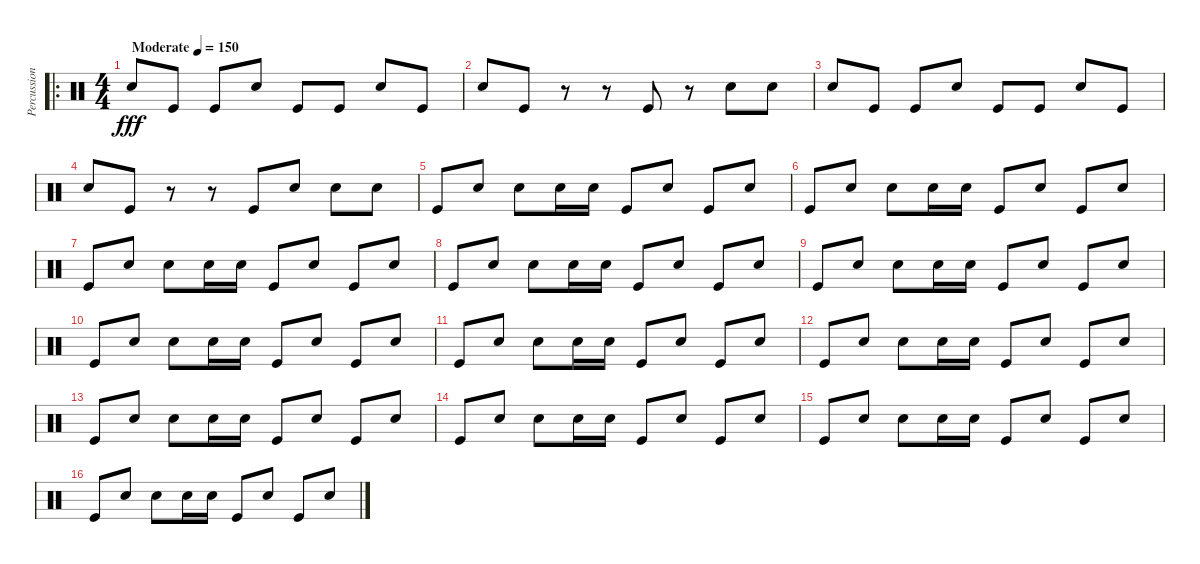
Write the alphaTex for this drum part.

\track ("Percussions" "Percussion") {instrument percussion}
\staff {score}
\articulation defaults
\ro
\ts (4 4)
\tempo (150 "Moderate")
\clef neutral
\ks c "Snare (hit) 2".8{dy fff} "Kick (hit)".8 "Kick (hit)".8 "Snare (hit) 2".8 "Kick (hit)".8 "Kick (hit)".8 "Snare (hit) 2".8 "Kick (hit)".8
|
"Snare (hit) 2".8 "Kick (hit)".8 r.8 r.8 "Kick (hit)".8 r.8 "Snare (hit) 2".8 "Snare (hit) 2".8 |
"Snare (hit) 2".8 "Kick (hit)".8 "Kick (hit)".8 "Snare (hit) 2".8 "Kick (hit)".8 "Kick (hit)".8 "Snare (hit) 2".8 "Kick (hit)".8 |
"Snare (hit) 2".8 "Kick (hit)".8 r.8 r.8 "Kick (hit)".8 "Snare (hit) 2".8 "Snare (hit) 2".8 "Snare (hit) 2".8 |
"Kick (hit)".8 "Snare (hit) 2".8 "Snare (hit) 2".8 "Snare (hit) 2".16 "Snare (hit) 2".16 "Kick (hit)".8 "Snare (hit) 2".8 "Kick (hit)".8 "Snare (hit) 2".8 |
"Kick (hit)".8 "Snare (hit) 2".8 "Snare (hit) 2".8 "Snare (hit) 2".16 "Snare (hit) 2".16 "Kick (hit)".8 "Snare (hit) 2".8 "Kick (hit)".8 "Snare (hit) 2".8 |
"Kick (hit)".8 "Snare (hit) 2".8 "Snare (hit) 2".8 "Snare (hit) 2".16 "Snare (hit) 2".16 "Kick (hit)".8 "Snare (hit) 2".8 "Kick (hit)".8 "Snare (hit) 2".8 |
"Kick (hit)".8 "Snare (hit) 2".8 "Snare (hit) 2".8 "Snare (hit) 2".16 "Snare (hit) 2".16 "Kick (hit)".8 "Snare (hit) 2".8 "Kick (hit)".8 "Snare (hit) 2".8 |
"Kick (hit)".8 "Snare (hit) 2".8 "Snare (hit) 2".8 "Snare (hit) 2".16 "Snare (hit) 2".16 "Kick (hit)".8 "Snare (hit) 2".8 "Kick (hit)".8 "Snare (hit) 2".8 |
"Kick (hit)".8 "Snare (hit) 2".8 "Snare (hit) 2".8 "Snare (hit) 2".16 "Snare (hit) 2".16 "Kick (hit)".8 "Snare (hit) 2".8 "Kick (hit)".8 "Snare (hit) 2".8 |
"Kick (hit)".8 "Snare (hit) 2".8 "Snare (hit) 2".8 "Snare (hit) 2".16 "Snare (hit) 2".16 "Kick (hit)".8 "Snare (hit) 2".8 "Kick (hit)".8 "Snare (hit) 2".8 |
"Kick (hit)".8 "Snare (hit) 2".8 "Snare (hit) 2".8 "Snare (hit) 2".16 "Snare (hit) 2".16 "Kick (hit)".8 "Snare (hit) 2".8 "Kick (hit)".8 "Snare (hit) 2".8 |
"Kick (hit)".8 "Snare (hit) 2".8 "Snare (hit) 2".8 "Snare (hit) 2".16 "Snare (hit) 2".16 "Kick (hit)".8 "Snare (hit) 2".8 "Kick (hit)".8 "Snare (hit) 2".8 |
"Kick (hit)".8 "Snare (hit) 2".8 "Snare (hit) 2".8 "Snare (hit) 2".16 "Snare (hit) 2".16 "Kick (hit)".8 "Snare (hit) 2".8 "Kick (hit)".8 "Snare (hit) 2".8 |
"Kick (hit)".8 "Snare (hit) 2".8 "Snare (hit) 2".8 "Snare (hit) 2".16 "Snare (hit) 2".16 "Kick (hit)".8 "Snare (hit) 2".8 "Kick (hit)".8 "Snare (hit) 2".8 |
"Kick (hit)".8 "Snare (hit) 2".8 "Snare (hit) 2".8 "Snare (hit) 2".16 "Snare (hit) 2".16 "Kick (hit)".8 "Snare (hit) 2".8 "Kick (hit)".8 "Snare (hit) 2".8
